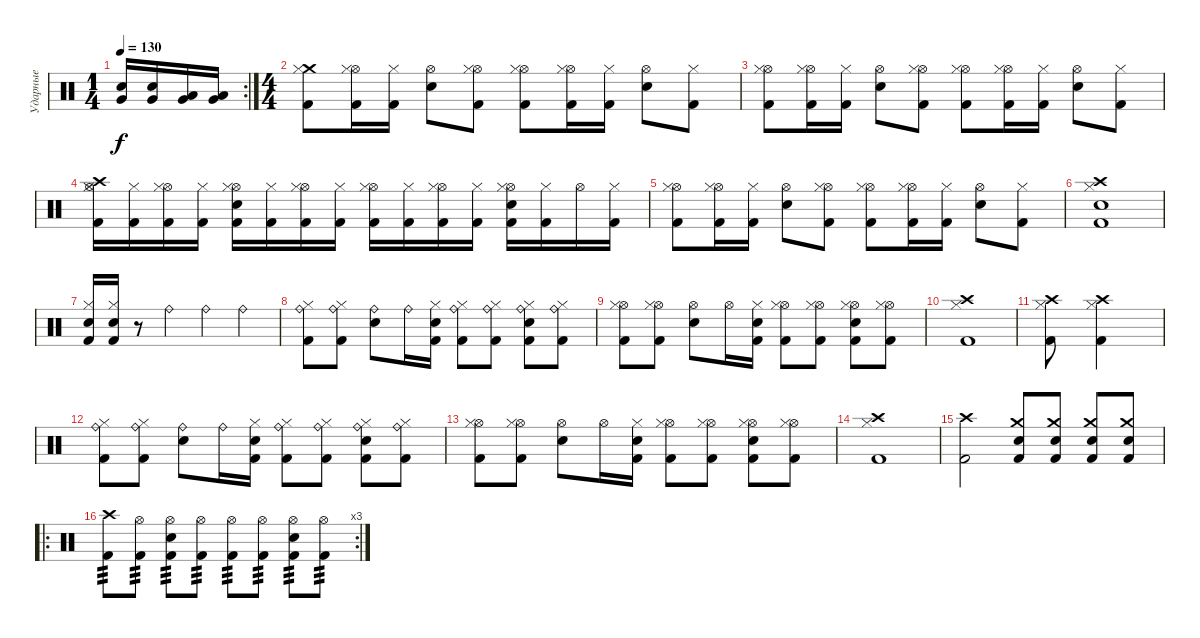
\track ("Ударные" "Ударные") {instrument percussion}
\staff {score}
\articulation defaults
\rc 2
\ts (1 4)
\tempo 130
\clef neutral
\ks c
("Electric Snare (hit)" "Very Low Tom (hit)").16{dy f} ("Electric Snare (hit)" "Very Low Tom (hit)").16 ("Low Tom (hit)" "Very Low Tom (hit)").16 ("Low Tom (hit)" "Very Low Tom (hit)").16 |
\ts (4 4)
("Crash medium (hit)" "Hi-Hat (closed)" "Kick (hit) 2").8 ("Hi-Hat (open)" "Hi-Hat (closed)" "Kick (hit) 2").16 ("Hi-Hat (closed)" "Kick (hit) 2").16 ("Hi-Hat (open)" "Snare (hit) 2").8 ("Hi-Hat (open)" "Hi-Hat (closed)" "Kick (hit) 2").8 ("Hi-Hat (open)" "Hi-Hat (closed)" "Kick (hit) 2").8 ("Hi-Hat (open)" "Hi-Hat (closed)" "Kick (hit) 2").16 ("Hi-Hat (closed)" "Kick (hit) 2").16 ("Hi-Hat (open)" "Snare (hit) 2").8 ("Hi-Hat (closed)" "Kick (hit) 2").8 |
("Hi-Hat (open)" "Hi-Hat (closed)" "Kick (hit) 2").8 ("Hi-Hat (open)" "Hi-Hat (closed)" "Kick (hit) 2").16 ("Hi-Hat (closed)" "Kick (hit) 2").16 ("Hi-Hat (open)" "Snare (hit) 2").8 ("Hi-Hat (open)" "Hi-Hat (closed)" "Kick (hit) 2").8 ("Hi-Hat (open)" "Hi-Hat (closed)" "Kick (hit) 2").8 ("Hi-Hat (open)" "Hi-Hat (closed)" "Kick (hit) 2").16 ("Hi-Hat (closed)" "Kick (hit) 2").16 ("Hi-Hat (open)" "Snare (hit) 2").8 ("Hi-Hat (closed)" "Kick (hit) 2").8 |
("Hi-Hat (open)" "Crash high (hit)" "Hi-Hat (closed)" "Kick (hit) 2").16 ("Hi-Hat (closed)" "Kick (hit) 2").16 ("Hi-Hat (open)" "Hi-Hat (closed)" "Kick (hit) 2").16 ("Hi-Hat (closed)" "Kick (hit) 2").16 ("Hi-Hat (open)" "Snare (hit) 2" "Hi-Hat (closed)" "Kick (hit) 2").16 ("Hi-Hat (closed)" "Kick (hit) 2").16 ("Hi-Hat (open)" "Hi-Hat (closed)" "Kick (hit) 2").16 ("Hi-Hat (closed)" "Kick (hit) 2").16 ("Hi-Hat (open)" "Hi-Hat (closed)" "Kick (hit) 2").16 ("Hi-Hat (closed)" "Kick (hit) 2").16 ("Hi-Hat (open)" "Hi-Hat (closed)" "Kick (hit) 2").16 ("Hi-Hat (closed)" "Kick (hit) 2").16 ("Hi-Hat (open)" "Snare (hit) 2" "Hi-Hat (closed)" "Kick (hit) 2").16 ("Hi-Hat (closed)" "Kick (hit) 2").16 "Hi-Hat (open)".16 ("Hi-Hat (closed)" "Kick (hit) 2").16 |
("Hi-Hat (open)" "Hi-Hat (closed)" "Kick (hit) 2").8 ("Hi-Hat (open)" "Hi-Hat (closed)" "Kick (hit) 2").16 ("Hi-Hat (closed)" "Kick (hit) 2").16 ("Hi-Hat (open)" "Snare (hit) 2").8 ("Hi-Hat (open)" "Hi-Hat (closed)" "Kick (hit) 2").8 ("Hi-Hat (open)" "Hi-Hat (closed)" "Kick (hit) 2").8 ("Hi-Hat (open)" "Hi-Hat (closed)" "Kick (hit) 2").16 ("Hi-Hat (closed)" "Kick (hit) 2").16 ("Hi-Hat (open)" "Snare (hit) 2").8 ("Hi-Hat (closed)" "Kick (hit) 2").8 |
("Crash high (hit)" "Electric Snare (hit)" "Hi-Hat (closed)" "Kick (hit) 2").1 |
("Electric Snare (hit)" "Hi-Hat (closed)" "Kick (hit) 2").16 ("Electric Snare (hit)" "Hi-Hat (closed)" "Kick (hit) 2").16 r.8 "Ride (bell)".4 "Ride (bell)".4 "Ride (bell)".4 |
("Ride (bell)" "Hi-Hat (closed)" "Kick (hit) 2").8 ("Ride (bell)" "Hi-Hat (closed)" "Kick (hit) 2").8 ("Ride (bell)" "Electric Snare (hit)").8 "Ride (bell)".16 ("Hi-Hat (closed)" "Electric Snare (hit)" "Kick (hit) 2").16 ("Ride (bell)" "Hi-Hat (closed)" "Kick (hit) 2").8 ("Ride (bell)" "Hi-Hat (closed)" "Kick (hit) 2").8 ("Ride (bell)" "Hi-Hat (closed)" "Electric Snare (hit)" "Kick (hit) 2").8 ("Ride (bell)" "Hi-Hat (closed)" "Kick (hit) 2").8 |
("Hi-Hat (open)" "Hi-Hat (closed)" "Kick (hit) 2").8 ("Hi-Hat (open)" "Hi-Hat (closed)" "Kick (hit) 2").8 ("Hi-Hat (open)" "Electric Snare (hit)").8 "Hi-Hat (open)".16 ("Hi-Hat (closed)" "Electric Snare (hit)" "Kick (hit) 2").16 ("Hi-Hat (open)" "Hi-Hat (closed)" "Kick (hit) 2").8 ("Hi-Hat (open)" "Hi-Hat (closed)" "Kick (hit) 2").8 ("Hi-Hat (open)" "Hi-Hat (closed)" "Electric Snare (hit)" "Kick (hit) 2").8 ("Hi-Hat (open)" "Hi-Hat (closed)" "Kick (hit) 2").8 |
("Crash high (hit)" "Hi-Hat (closed)" "Kick (hit) 2").1 |
("Crash high (hit)" "Hi-Hat (closed)" "Kick (hit) 2").8 ("Crash high (hit)" "Hi-Hat (closed)" "Kick (hit) 2").4 |
("Ride (bell)" "Hi-Hat (closed)" "Kick (hit) 2").8 ("Ride (bell)" "Hi-Hat (closed)" "Kick (hit) 2").8 ("Ride (bell)" "Electric Snare (hit)").8 "Ride (bell)".16 ("Hi-Hat (closed)" "Electric Snare (hit)" "Kick (hit) 2").16 ("Ride (bell)" "Hi-Hat (closed)" "Kick (hit) 2").8 ("Ride (bell)" "Hi-Hat (closed)" "Kick (hit) 2").8 ("Ride (bell)" "Hi-Hat (closed)" "Electric Snare (hit)" "Kick (hit) 2").8 ("Ride (bell)" "Hi-Hat (closed)" "Kick (hit) 2").8 |
("Hi-Hat (open)" "Hi-Hat (closed)" "Kick (hit) 2").8 ("Hi-Hat (open)" "Hi-Hat (closed)" "Kick (hit) 2").8 ("Hi-Hat (open)" "Electric Snare (hit)").8 "Hi-Hat (open)".16 ("Hi-Hat (closed)" "Electric Snare (hit)" "Kick (hit) 2").16 ("Hi-Hat (open)" "Hi-Hat (closed)" "Kick (hit) 2").8 ("Hi-Hat (open)" "Hi-Hat (closed)" "Kick (hit) 2").8 ("Hi-Hat (open)" "Hi-Hat (closed)" "Electric Snare (hit)" "Kick (hit) 2").8 ("Hi-Hat (open)" "Hi-Hat (closed)" "Kick (hit) 2").8 |
("Crash high (hit)" "Hi-Hat (closed)" "Kick (hit) 2").1 |
("Crash high (hit)" "Kick (hit) 2").2 ("Crash medium (hit)" "Kick (hit) 2" "Electric Snare (hit)").8 ("Crash medium (hit)" "Kick (hit) 2" "Electric Snare (hit)").8 ("Crash medium (hit)" "Kick (hit) 2" "Electric Snare (hit)").8 ("Crash medium (hit)" "Kick (hit) 2" "Electric Snare (hit)").8 |
\ro
\rc 3
("Crash high (hit)" "Kick (hit) 2").8{tp 3} ("Hi-Hat (open)" "Kick (hit) 2").8{tp 3} ("Hi-Hat (open)" "Snare (hit) 2" "Kick (hit) 2").8{tp 3} ("Hi-Hat (open)" "Kick (hit) 2").8{tp 3} ("Hi-Hat (open)" "Kick (hit) 2").8{tp 3} ("Hi-Hat (open)" "Kick (hit) 2").8{tp 3} ("Hi-Hat (open)" "Snare (hit) 2" "Kick (hit) 2").8{tp 3} ("Hi-Hat (open)" "Kick (hit) 2").8{tp 3}
